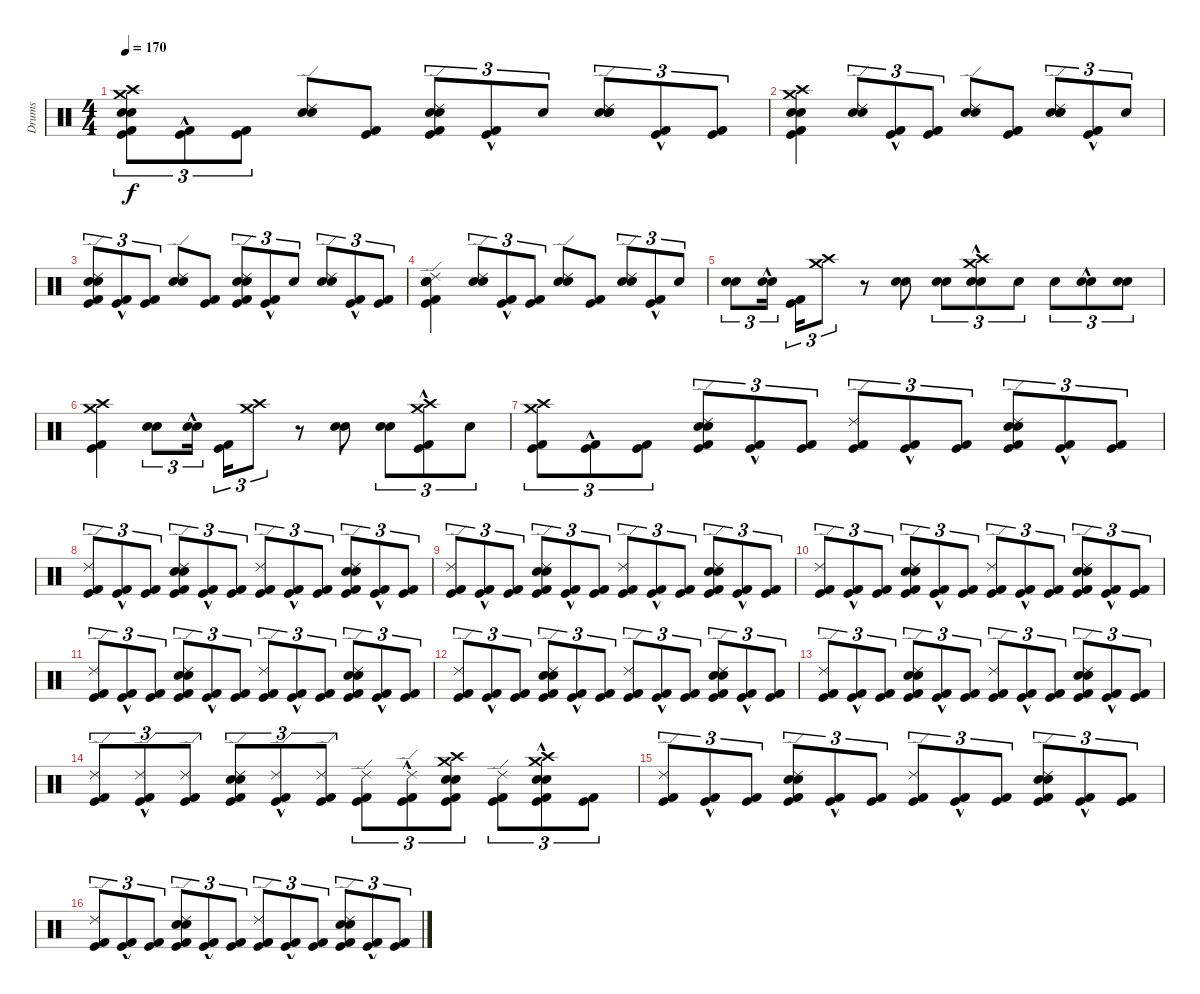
\track ("Drums" "Drums") {instrument percussion}
\staff {score}
\articulation defaults
\ts (4 4)
\tempo 170
\clef neutral
\ks c
("Crash high (hit)" "Crash medium (hit)" "Snare (hit) 2" "Electric Snare (hit)" "Kick (hit) 2" "Kick (hit)").8{tu (3 2) dy f} ("Kick (hit) 2"{hac} "Kick (hit)"{hac}).8{tu (3 2)} ("Kick (hit) 2" "Kick (hit)").8{tu (3 2)} ("Ride (edge) 2" "Electric Snare (hit)" "Snare (hit) 2").8 ("Kick (hit) 2" "Kick (hit)").8 ("Ride (edge) 2" "Electric Snare (hit)" "Snare (hit) 2" "Kick (hit) 2" "Kick (hit)").8{tu (3 2)} ("Kick (hit) 2"{hac} "Kick (hit)"{hac}).8{tu (3 2)} "Snare (hit)".8{tu (3 2)} ("Ride (edge) 2" "Snare (hit) 2" "Electric Snare (hit)" "Snare (hit)").8{tu (3 2)} ("Kick (hit) 2"{hac} "Kick (hit)"{hac}).8{tu (3 2)} ("Kick (hit) 2" "Kick (hit)").8{tu (3 2)} |
("Crash high (hit)" "Crash medium (hit)" "Electric Snare (hit)" "Snare (hit) 2" "Kick (hit) 2" "Kick (hit)").4 ("Ride (edge) 2" "Electric Snare (hit)" "Snare (hit) 2").8{tu (3 2)} ("Kick (hit) 2"{hac} "Kick (hit)"{hac}).8{tu (3 2)} ("Kick (hit)" "Kick (hit) 2").8{tu (3 2)} ("Ride (edge) 2" "Electric Snare (hit)" "Snare (hit) 2").8 ("Kick (hit) 2" "Kick (hit)").8 ("Ride (edge) 2" "Electric Snare (hit)" "Snare (hit) 2" "Snare (hit)").8{tu (3 2)} ("Kick (hit) 2"{hac} "Kick (hit)"{hac}).8{tu (3 2)} "Snare (hit)".8{tu (3 2)} |
("Ride (edge) 2" "Electric Snare (hit)" "Snare (hit) 2" "Kick (hit) 2" "Kick (hit)").8{tu (3 2)} ("Kick (hit) 2"{hac} "Kick (hit)"{hac}).8{tu (3 2)} ("Kick (hit) 2" "Kick (hit)").8{tu (3 2)} ("Ride (edge) 2" "Electric Snare (hit)" "Snare (hit) 2").8 ("Kick (hit) 2" "Kick (hit)").8 ("Ride (edge) 2" "Electric Snare (hit)" "Snare (hit) 2" "Kick (hit) 2" "Kick (hit)").8{tu (3 2)} ("Kick (hit) 2"{hac} "Kick (hit)"{hac}).8{tu (3 2)} "Snare (hit)".8{tu (3 2)} ("Ride (edge) 2" "Electric Snare (hit)" "Snare (hit) 2").8{tu (3 2)} ("Kick (hit) 2"{hac} "Kick (hit)"{hac}).8{tu (3 2)} ("Kick (hit) 2" "Kick (hit)").8{tu (3 2)} |
("Ride (edge) 2" "Electric Snare (hit)" "Snare (hit) 2" "Kick (hit) 2" "Kick (hit)").4 ("Ride (edge) 2" "Electric Snare (hit)" "Snare (hit) 2").8{tu (3 2)} ("Kick (hit) 2"{hac} "Kick (hit)"{hac}).8{tu (3 2)} ("Kick (hit) 2" "Kick (hit)").8{tu (3 2)} ("Ride (edge) 2" "Electric Snare (hit)" "Snare (hit) 2").8 ("Kick (hit) 2" "Kick (hit)").8 ("Ride (edge) 2" "Electric Snare (hit)" "Snare (hit) 2").8{tu (3 2)} ("Kick (hit) 2"{hac} "Kick (hit)"{hac}).8{tu (3 2)} "Snare (hit)".8{tu (3 2)} |
("Electric Snare (hit)" "Snare (hit) 2").8{tu (3 2)} ("Electric Snare (hit)"{hac} "Snare (hit) 2"{hac}).16{tu (3 2)} ("Kick (hit) 2" "Kick (hit)").16{tu (3 2)} ("Crash high (hit)" "Crash medium (hit)").8{tu (3 2)} r.8 ("Electric Snare (hit)" "Snare (hit) 2").8 ("Electric Snare (hit)" "Snare (hit) 2").8{tu (3 2)} ("Crash high (hit)"{hac} "Crash medium (hit)"{hac} "Electric Snare (hit)"{hac} "Snare (hit) 2"{hac}).8{tu (3 2)} "Snare (hit)".8{tu (3 2)} "Snare (hit)".8{tu (3 2)} ("Electric Snare (hit)"{hac} "Snare (hit) 2"{hac}).8{tu (3 2)} ("Electric Snare (hit)" "Snare (hit) 2").8{tu (3 2)} |
("Crash high (hit)" "Crash medium (hit)" "Kick (hit) 2" "Kick (hit)").4 ("Electric Snare (hit)" "Snare (hit) 2").8{tu (3 2)} ("Electric Snare (hit)"{hac} "Snare (hit) 2"{hac}).16{tu (3 2)} ("Kick (hit) 2" "Kick (hit)").16{tu (3 2)} ("Crash high (hit)" "Crash medium (hit)").8{tu (3 2)} r.8 ("Electric Snare (hit)" "Snare (hit) 2").8 ("Electric Snare (hit)" "Snare (hit) 2").8{tu (3 2)} ("Crash medium (hit)"{hac} "Crash high (hit)"{hac} "Kick (hit) 2"{hac} "Kick (hit)"{hac}).8{tu (3 2)} "Snare (hit)".8{tu (3 2)} |
("Crash high (hit)" "Crash medium (hit)" "Kick (hit) 2" "Kick (hit)").8{tu (3 2)} ("Kick (hit) 2"{hac} "Kick (hit)").8{tu (3 2)} ("Kick (hit) 2" "Kick (hit)").8{tu (3 2)} ("Ride (edge) 2" "Electric Snare (hit)" "Snare (hit) 2" "Kick (hit) 2" "Kick (hit)").8{tu (3 2)} ("Kick (hit) 2"{hac} "Kick (hit)"{hac}).8{tu (3 2)} ("Kick (hit) 2" "Kick (hit)").8{tu (3 2)} ("Ride (edge) 2" "Kick (hit) 2" "Kick (hit)").8{tu (3 2)} ("Kick (hit) 2"{hac} "Kick (hit)"{hac}).8{tu (3 2)} ("Kick (hit) 2" "Kick (hit)").8{tu (3 2)} ("Ride (edge) 2" "Electric Snare (hit)" "Snare (hit) 2" "Kick (hit) 2" "Kick (hit)").8{tu (3 2)} ("Kick (hit) 2"{hac} "Kick (hit)"{hac}).8{tu (3 2)} ("Kick (hit) 2" "Kick (hit)").8{tu (3 2)} |
("Ride (edge) 2" "Kick (hit) 2" "Kick (hit)").8{tu (3 2)} ("Kick (hit) 2"{hac} "Kick (hit)"{hac}).8{tu (3 2)} ("Kick (hit) 2" "Kick (hit)").8{tu (3 2)} ("Ride (edge) 2" "Electric Snare (hit)" "Snare (hit) 2" "Kick (hit) 2" "Kick (hit)").8{tu (3 2)} ("Kick (hit) 2"{hac} "Kick (hit)"{hac}).8{tu (3 2)} ("Kick (hit) 2" "Kick (hit)").8{tu (3 2)} ("Ride (edge) 2" "Kick (hit) 2" "Kick (hit)").8{tu (3 2)} ("Kick (hit) 2"{hac} "Kick (hit)"{hac}).8{tu (3 2)} ("Kick (hit) 2" "Kick (hit)").8{tu (3 2)} ("Ride (edge) 2" "Electric Snare (hit)" "Snare (hit) 2" "Kick (hit) 2" "Kick (hit)").8{tu (3 2)} ("Kick (hit) 2"{hac} "Kick (hit)"{hac}).8{tu (3 2)} ("Kick (hit) 2" "Kick (hit)").8{tu (3 2)} |
("Ride (edge) 2" "Kick (hit) 2" "Kick (hit)").8{tu (3 2)} ("Kick (hit) 2"{hac} "Kick (hit)"{hac}).8{tu (3 2)} ("Kick (hit) 2" "Kick (hit)").8{tu (3 2)} ("Ride (edge) 2" "Electric Snare (hit)" "Snare (hit) 2" "Kick (hit) 2" "Kick (hit)").8{tu (3 2)} ("Kick (hit) 2"{hac} "Kick (hit)"{hac}).8{tu (3 2)} ("Kick (hit) 2" "Kick (hit)").8{tu (3 2)} ("Ride (edge) 2" "Kick (hit) 2" "Kick (hit)").8{tu (3 2)} ("Kick (hit) 2"{hac} "Kick (hit)"{hac}).8{tu (3 2)} ("Kick (hit) 2" "Kick (hit)").8{tu (3 2)} ("Ride (edge) 2" "Electric Snare (hit)" "Snare (hit) 2" "Kick (hit) 2" "Kick (hit)").8{tu (3 2)} ("Kick (hit) 2"{hac} "Kick (hit)"{hac}).8{tu (3 2)} ("Kick (hit) 2" "Kick (hit)").8{tu (3 2)} |
("Ride (edge) 2" "Kick (hit) 2" "Kick (hit)").8{tu (3 2)} ("Kick (hit) 2"{hac} "Kick (hit)"{hac}).8{tu (3 2)} ("Kick (hit) 2" "Kick (hit)").8{tu (3 2)} ("Ride (edge) 2" "Electric Snare (hit)" "Snare (hit) 2" "Kick (hit) 2" "Kick (hit)").8{tu (3 2)} ("Kick (hit) 2"{hac} "Kick (hit)"{hac}).8{tu (3 2)} ("Kick (hit) 2" "Kick (hit)").8{tu (3 2)} ("Ride (edge) 2" "Kick (hit) 2" "Kick (hit)").8{tu (3 2)} ("Kick (hit) 2"{hac} "Kick (hit)"{hac}).8{tu (3 2)} ("Kick (hit) 2" "Kick (hit)").8{tu (3 2)} ("Ride (edge) 2" "Electric Snare (hit)" "Snare (hit) 2" "Kick (hit) 2" "Kick (hit)").8{tu (3 2)} ("Kick (hit) 2"{hac} "Kick (hit)"{hac}).8{tu (3 2)} ("Kick (hit) 2" "Kick (hit)").8{tu (3 2)} |
("Ride (edge) 2" "Kick (hit) 2" "Kick (hit)").8{tu (3 2)} ("Kick (hit) 2"{hac} "Kick (hit)"{hac}).8{tu (3 2)} ("Kick (hit) 2" "Kick (hit)").8{tu (3 2)} ("Ride (edge) 2" "Electric Snare (hit)" "Snare (hit) 2" "Kick (hit) 2" "Kick (hit)").8{tu (3 2)} ("Kick (hit) 2"{hac} "Kick (hit)"{hac}).8{tu (3 2)} ("Kick (hit) 2" "Kick (hit)").8{tu (3 2)} ("Ride (edge) 2" "Kick (hit) 2" "Kick (hit)").8{tu (3 2)} ("Kick (hit) 2"{hac} "Kick (hit)"{hac}).8{tu (3 2)} ("Kick (hit) 2" "Kick (hit)").8{tu (3 2)} ("Ride (edge) 2" "Electric Snare (hit)" "Snare (hit) 2" "Kick (hit) 2" "Kick (hit)").8{tu (3 2)} ("Kick (hit) 2"{hac} "Kick (hit)"{hac}).8{tu (3 2)} ("Kick (hit) 2" "Kick (hit)").8{tu (3 2)} |
("Ride (edge) 2" "Kick (hit) 2" "Kick (hit)").8{tu (3 2)} ("Kick (hit) 2"{hac} "Kick (hit)"{hac}).8{tu (3 2)} ("Kick (hit) 2" "Kick (hit)").8{tu (3 2)} ("Ride (edge) 2" "Electric Snare (hit)" "Snare (hit) 2" "Kick (hit) 2" "Kick (hit)").8{tu (3 2)} ("Kick (hit) 2"{hac} "Kick (hit)"{hac}).8{tu (3 2)} ("Kick (hit) 2" "Kick (hit)").8{tu (3 2)} ("Ride (edge) 2" "Kick (hit) 2" "Kick (hit)").8{tu (3 2)} ("Kick (hit) 2"{hac} "Kick (hit)"{hac}).8{tu (3 2)} ("Kick (hit) 2" "Kick (hit)").8{tu (3 2)} ("Ride (edge) 2" "Electric Snare (hit)" "Snare (hit) 2" "Kick (hit) 2" "Kick (hit)").8{tu (3 2)} ("Kick (hit) 2"{hac} "Kick (hit)"{hac}).8{tu (3 2)} ("Kick (hit) 2" "Kick (hit)").8{tu (3 2)} |
("Ride (edge) 2" "Kick (hit) 2" "Kick (hit)").8{tu (3 2)} ("Kick (hit) 2"{hac} "Kick (hit)"{hac}).8{tu (3 2)} ("Kick (hit) 2" "Kick (hit)").8{tu (3 2)} ("Ride (edge) 2" "Electric Snare (hit)" "Snare (hit) 2" "Kick (hit) 2" "Kick (hit)").8{tu (3 2)} ("Kick (hit) 2"{hac} "Kick (hit)"{hac}).8{tu (3 2)} ("Kick (hit) 2" "Kick (hit)").8{tu (3 2)} ("Ride (edge) 2" "Kick (hit) 2" "Kick (hit)").8{tu (3 2)} ("Kick (hit) 2"{hac} "Kick (hit)"{hac}).8{tu (3 2)} ("Kick (hit) 2" "Kick (hit)").8{tu (3 2)} ("Ride (edge) 2" "Electric Snare (hit)" "Snare (hit) 2" "Kick (hit) 2" "Kick (hit)").8{tu (3 2)} ("Kick (hit) 2"{hac} "Kick (hit)"{hac}).8{tu (3 2)} ("Kick (hit) 2" "Kick (hit)").8{tu (3 2)} |
("Ride (edge) 2" "Kick (hit) 2" "Kick (hit)").8{tu (3 2)} ("Ride (edge) 2"{hac} "Kick (hit) 2"{hac} "Kick (hit)"{hac}).8{tu (3 2)} ("Ride (edge) 2" "Kick (hit) 2" "Kick (hit)").8{tu (3 2)} ("Ride (edge) 2" "Electric Snare (hit)" "Snare (hit) 2" "Kick (hit) 2" "Kick (hit)").8{tu (3 2)} ("Ride (edge) 2"{hac} "Kick (hit) 2"{hac} "Kick (hit)"{hac}).8{tu (3 2)} ("Ride (edge) 2" "Kick (hit) 2" "Kick (hit)").8{tu (3 2)} ("Ride (edge) 2" "Kick (hit) 2" "Kick (hit)").8{tu (3 2)} ("Ride (edge) 2"{hac} "Kick (hit) 2"{hac} "Kick (hit)"{hac}).8{tu (3 2)} ("Electric Snare (hit)" "Snare (hit) 2" "Crash high (hit)" "Crash medium (hit)" "Kick (hit) 2" "Kick (hit)").8{tu (3 2)} ("Ride (edge) 2" "Kick (hit) 2" "Kick (hit)").8{tu (3 2)} ("Crash high (hit)"{hac} "Crash medium (hit)"{hac} "Snare (hit) 2"{hac} "Electric Snare (hit)"{hac} "Kick (hit) 2"{hac} "Kick (hit)"{hac}).8{tu (3 2)} ("Kick (hit) 2" "Kick (hit)").8{tu (3 2)} |
("Ride (edge) 2" "Kick (hit) 2" "Kick (hit)").8{tu (3 2)} ("Kick (hit) 2"{hac} "Kick (hit)"{hac}).8{tu (3 2)} ("Kick (hit) 2" "Kick (hit)").8{tu (3 2)} ("Ride (edge) 2" "Electric Snare (hit)" "Snare (hit) 2" "Kick (hit) 2" "Kick (hit)").8{tu (3 2)} ("Kick (hit) 2"{hac} "Kick (hit)"{hac}).8{tu (3 2)} ("Kick (hit) 2" "Kick (hit)").8{tu (3 2)} ("Ride (edge) 2" "Kick (hit) 2" "Kick (hit)").8{tu (3 2)} ("Kick (hit) 2"{hac} "Kick (hit)"{hac}).8{tu (3 2)} ("Kick (hit) 2" "Kick (hit)").8{tu (3 2)} ("Ride (edge) 2" "Electric Snare (hit)" "Snare (hit) 2" "Kick (hit) 2" "Kick (hit)").8{tu (3 2)} ("Kick (hit) 2"{hac} "Kick (hit)"{hac}).8{tu (3 2)} ("Kick (hit) 2" "Kick (hit)").8{tu (3 2)} |
("Ride (edge) 2" "Kick (hit) 2" "Kick (hit)").8{tu (3 2)} ("Kick (hit) 2"{hac} "Kick (hit)"{hac}).8{tu (3 2)} ("Kick (hit) 2" "Kick (hit)").8{tu (3 2)} ("Ride (edge) 2" "Electric Snare (hit)" "Snare (hit) 2" "Kick (hit) 2" "Kick (hit)").8{tu (3 2)} ("Kick (hit) 2"{hac} "Kick (hit)"{hac}).8{tu (3 2)} ("Kick (hit) 2" "Kick (hit)").8{tu (3 2)} ("Ride (edge) 2" "Kick (hit) 2" "Kick (hit)").8{tu (3 2)} ("Kick (hit) 2"{hac} "Kick (hit)"{hac}).8{tu (3 2)} ("Kick (hit) 2" "Kick (hit)").8{tu (3 2)} ("Ride (edge) 2" "Electric Snare (hit)" "Snare (hit) 2" "Kick (hit) 2" "Kick (hit)").8{tu (3 2)} ("Kick (hit) 2"{hac} "Kick (hit)"{hac}).8{tu (3 2)} ("Kick (hit) 2" "Kick (hit)").8{tu (3 2)}
